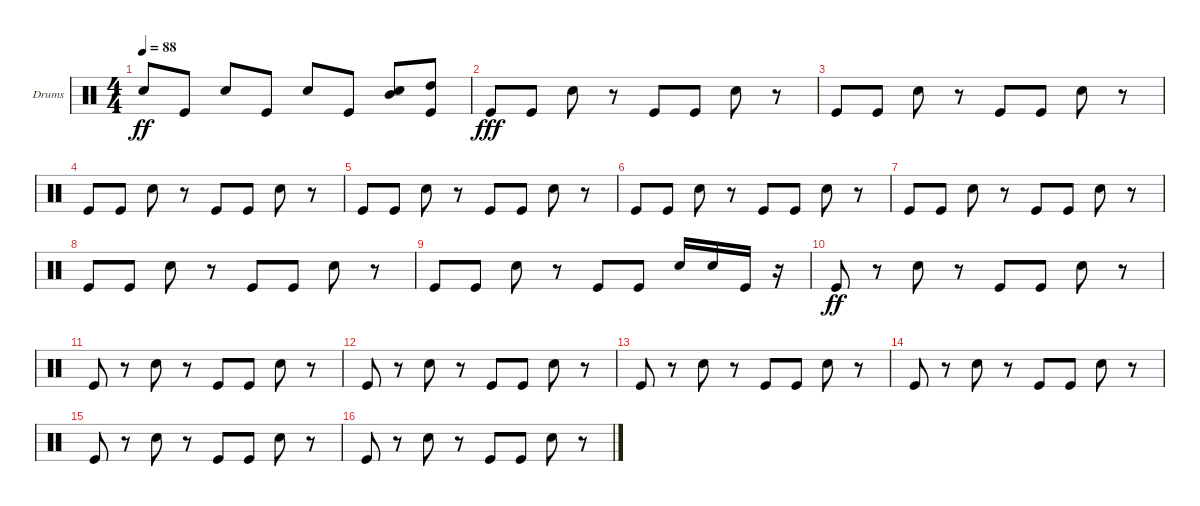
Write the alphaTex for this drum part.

\defaultSystemsLayout 4
\bracketExtendMode groupsimilarinstruments
\firstSystemTrackNameOrientation horizontal
\otherSystemsTrackNameOrientation horizontal
\track ("Drumkit" "Drums") {instrument percussion}
\staff {score}
\articulation defaults
\ts (4 4)
\tempo 88
\clef neutral
\ks c "Snare (hit) 2".8{dy ff} "Kick (hit)".8 "Snare (hit) 2".8 "Kick (hit)".8 "Snare (hit) 2".8 "Kick (hit)".8
("Snare (hit) 2" "Mid Tom (hit)").8 ("Kick (hit)" "High Tom (hit)").8 |
"Kick (hit)".8{dy fff} "Kick (hit)".8 "Snare (hit) 2".8 r.8 "Kick (hit)".8 "Kick (hit)".8 "Snare (hit) 2".8 r.8 |
"Kick (hit)".8 "Kick (hit)".8 "Snare (hit) 2".8 r.8 "Kick (hit)".8 "Kick (hit)".8 "Snare (hit) 2".8 r.8 |
"Kick (hit)".8 "Kick (hit)".8 "Snare (hit) 2".8 r.8 "Kick (hit)".8 "Kick (hit)".8 "Snare (hit) 2".8 r.8 |
"Kick (hit)".8 "Kick (hit)".8 "Snare (hit) 2".8 r.8 "Kick (hit)".8 "Kick (hit)".8 "Snare (hit) 2".8 r.8 |
"Kick (hit)".8 "Kick (hit)".8 "Snare (hit) 2".8 r.8 "Kick (hit)".8 "Kick (hit)".8 "Snare (hit) 2".8 r.8 |
"Kick (hit)".8 "Kick (hit)".8 "Snare (hit) 2".8 r.8 "Kick (hit)".8 "Kick (hit)".8 "Snare (hit) 2".8 r.8 |
"Kick (hit)".8 "Kick (hit)".8 "Snare (hit) 2".8 r.8 "Kick (hit)".8 "Kick (hit)".8 "Snare (hit) 2".8 r.8 |
"Kick (hit)".8 "Kick (hit)".8 "Snare (hit) 2".8 r.8 "Kick (hit)".8 "Kick (hit)".8 "Snare (hit) 2".16 "Snare (hit) 2".16 "Kick (hit)".16 r.16 |
"Kick (hit)".8{dy ff} r.8 "Snare (hit) 2".8 r.8 "Kick (hit)".8 "Kick (hit)".8 "Snare (hit) 2".8 r.8 |
"Kick (hit)".8 r.8 "Snare (hit) 2".8 r.8 "Kick (hit)".8 "Kick (hit)".8 "Snare (hit) 2".8 r.8 |
"Kick (hit)".8 r.8 "Snare (hit) 2".8 r.8 "Kick (hit)".8 "Kick (hit)".8 "Snare (hit) 2".8 r.8 |
"Kick (hit)".8 r.8 "Snare (hit) 2".8 r.8 "Kick (hit)".8 "Kick (hit)".8 "Snare (hit) 2".8 r.8 |
"Kick (hit)".8 r.8 "Snare (hit) 2".8 r.8 "Kick (hit)".8 "Kick (hit)".8 "Snare (hit) 2".8 r.8 |
"Kick (hit)".8 r.8 "Snare (hit) 2".8 r.8 "Kick (hit)".8 "Kick (hit)".8 "Snare (hit) 2".8 r.8 |
"Kick (hit)".8 r.8 "Snare (hit) 2".8 r.8 "Kick (hit)".8 "Kick (hit)".8 "Snare (hit) 2".8 r.8
